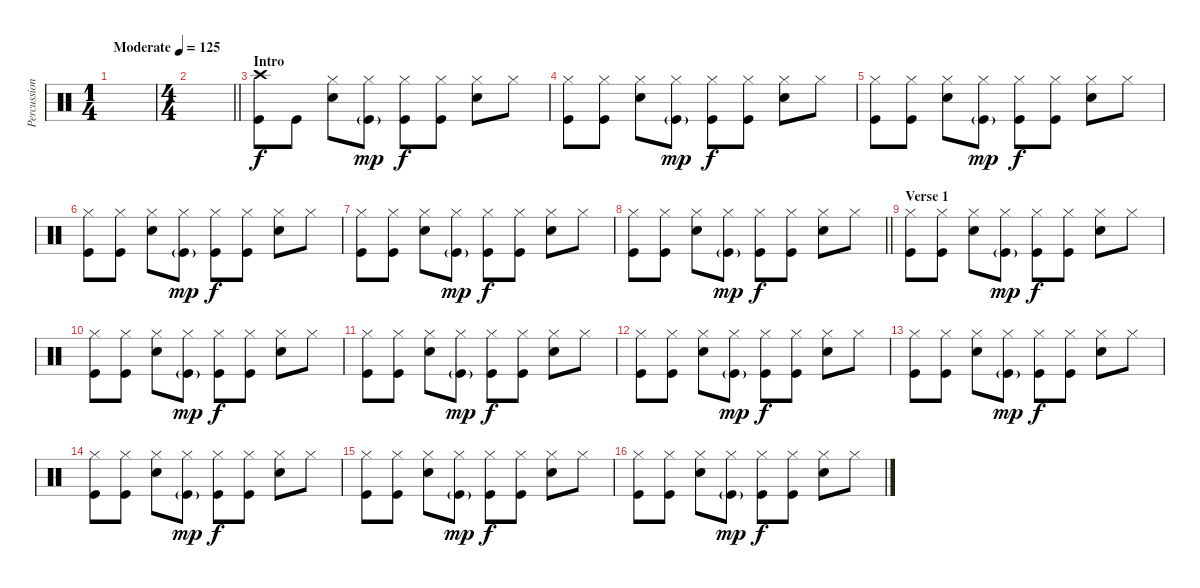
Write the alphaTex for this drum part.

\track ("Percussion" "Percussion") {instrument percussion}
\staff {score}
\articulation defaults
\ts (1 4)
\tempo (125 "Moderate")
\clef neutral
\ks c
|
\ts (4 4)
\barLineRight lightlight
|
\section ("" "Intro")
("Crash high (hit)" "Kick (hit)").8 "Kick (hit)".8 ("Hi-Hat (closed)" "Snare (hit) 2").8 ("Hi-Hat (closed)" "Kick (hit)"{g}).8{dy mp} ("Hi-Hat (closed)" "Kick (hit)").8{dy f} ("Hi-Hat (closed)" "Kick (hit)").8 ("Hi-Hat (closed)" "Snare (hit) 2").8 "Hi-Hat (closed)".8 |
("Hi-Hat (closed)" "Kick (hit)").8 ("Hi-Hat (closed)" "Kick (hit)").8 ("Hi-Hat (closed)" "Snare (hit) 2").8 ("Hi-Hat (closed)" "Kick (hit)"{g}).8{dy mp} ("Hi-Hat (closed)" "Kick (hit)").8{dy f} ("Hi-Hat (closed)" "Kick (hit)").8 ("Hi-Hat (closed)" "Snare (hit) 2").8 "Hi-Hat (closed)".8 |
("Hi-Hat (closed)" "Kick (hit)").8 ("Hi-Hat (closed)" "Kick (hit)").8 ("Hi-Hat (closed)" "Snare (hit) 2").8 ("Hi-Hat (closed)" "Kick (hit)"{g}).8{dy mp} ("Hi-Hat (closed)" "Kick (hit)").8{dy f} ("Hi-Hat (closed)" "Kick (hit)").8 ("Hi-Hat (closed)" "Snare (hit) 2").8 "Hi-Hat (closed)".8 |
("Hi-Hat (closed)" "Kick (hit)").8 ("Hi-Hat (closed)" "Kick (hit)").8 ("Hi-Hat (closed)" "Snare (hit) 2").8 ("Hi-Hat (closed)" "Kick (hit)"{g}).8{dy mp} ("Hi-Hat (closed)" "Kick (hit)").8{dy f} ("Hi-Hat (closed)" "Kick (hit)").8 ("Hi-Hat (closed)" "Snare (hit) 2").8 "Hi-Hat (closed)".8 |
("Hi-Hat (closed)" "Kick (hit)").8 ("Hi-Hat (closed)" "Kick (hit)").8 ("Hi-Hat (closed)" "Snare (hit) 2").8 ("Hi-Hat (closed)" "Kick (hit)"{g}).8{dy mp} ("Hi-Hat (closed)" "Kick (hit)").8{dy f} ("Hi-Hat (closed)" "Kick (hit)").8 ("Hi-Hat (closed)" "Snare (hit) 2").8 "Hi-Hat (closed)".8 |
\barLineRight lightlight
("Hi-Hat (closed)" "Kick (hit)").8 ("Hi-Hat (closed)" "Kick (hit)").8 ("Hi-Hat (closed)" "Snare (hit) 2").8 ("Hi-Hat (closed)" "Kick (hit)"{g}).8{dy mp} ("Hi-Hat (closed)" "Kick (hit)").8{dy f} ("Hi-Hat (closed)" "Kick (hit)").8 ("Hi-Hat (closed)" "Snare (hit) 2").8 "Hi-Hat (closed)".8 |
\section ("" "Verse 1")
("Hi-Hat (closed)" "Kick (hit)").8 ("Hi-Hat (closed)" "Kick (hit)").8 ("Hi-Hat (closed)" "Snare (hit) 2").8 ("Hi-Hat (closed)" "Kick (hit)"{g}).8{dy mp} ("Hi-Hat (closed)" "Kick (hit)").8{dy f} ("Hi-Hat (closed)" "Kick (hit)").8 ("Hi-Hat (closed)" "Snare (hit) 2").8 "Hi-Hat (closed)".8 |
("Hi-Hat (closed)" "Kick (hit)").8 ("Hi-Hat (closed)" "Kick (hit)").8 ("Hi-Hat (closed)" "Snare (hit) 2").8 ("Hi-Hat (closed)" "Kick (hit)"{g}).8{dy mp} ("Hi-Hat (closed)" "Kick (hit)").8{dy f} ("Hi-Hat (closed)" "Kick (hit)").8 ("Hi-Hat (closed)" "Snare (hit) 2").8 "Hi-Hat (closed)".8 |
("Hi-Hat (closed)" "Kick (hit)").8 ("Hi-Hat (closed)" "Kick (hit)").8 ("Hi-Hat (closed)" "Snare (hit) 2").8 ("Hi-Hat (closed)" "Kick (hit)"{g}).8{dy mp} ("Hi-Hat (closed)" "Kick (hit)").8{dy f} ("Hi-Hat (closed)" "Kick (hit)").8 ("Hi-Hat (closed)" "Snare (hit) 2").8 "Hi-Hat (closed)".8 |
("Hi-Hat (closed)" "Kick (hit)").8 ("Hi-Hat (closed)" "Kick (hit)").8 ("Hi-Hat (closed)" "Snare (hit) 2").8 ("Hi-Hat (closed)" "Kick (hit)"{g}).8{dy mp} ("Hi-Hat (closed)" "Kick (hit)").8{dy f} ("Hi-Hat (closed)" "Kick (hit)").8 ("Hi-Hat (closed)" "Snare (hit) 2").8 "Hi-Hat (closed)".8 |
("Hi-Hat (closed)" "Kick (hit)").8 ("Hi-Hat (closed)" "Kick (hit)").8 ("Hi-Hat (closed)" "Snare (hit) 2").8 ("Hi-Hat (closed)" "Kick (hit)"{g}).8{dy mp} ("Hi-Hat (closed)" "Kick (hit)").8{dy f} ("Hi-Hat (closed)" "Kick (hit)").8 ("Hi-Hat (closed)" "Snare (hit) 2").8 "Hi-Hat (closed)".8 |
("Hi-Hat (closed)" "Kick (hit)").8 ("Hi-Hat (closed)" "Kick (hit)").8 ("Hi-Hat (closed)" "Snare (hit) 2").8 ("Hi-Hat (closed)" "Kick (hit)"{g}).8{dy mp} ("Hi-Hat (closed)" "Kick (hit)").8{dy f} ("Hi-Hat (closed)" "Kick (hit)").8 ("Hi-Hat (closed)" "Snare (hit) 2").8 "Hi-Hat (closed)".8 |
("Hi-Hat (closed)" "Kick (hit)").8 ("Hi-Hat (closed)" "Kick (hit)").8 ("Hi-Hat (closed)" "Snare (hit) 2").8 ("Hi-Hat (closed)" "Kick (hit)"{g}).8{dy mp} ("Hi-Hat (closed)" "Kick (hit)").8{dy f} ("Hi-Hat (closed)" "Kick (hit)").8 ("Hi-Hat (closed)" "Snare (hit) 2").8 "Hi-Hat (closed)".8 |
("Hi-Hat (closed)" "Kick (hit)").8 ("Hi-Hat (closed)" "Kick (hit)").8 ("Hi-Hat (closed)" "Snare (hit) 2").8 ("Hi-Hat (closed)" "Kick (hit)"{g}).8{dy mp} ("Hi-Hat (closed)" "Kick (hit)").8{dy f} ("Hi-Hat (closed)" "Kick (hit)").8 ("Hi-Hat (closed)" "Snare (hit) 2").8 "Hi-Hat (closed)".8
